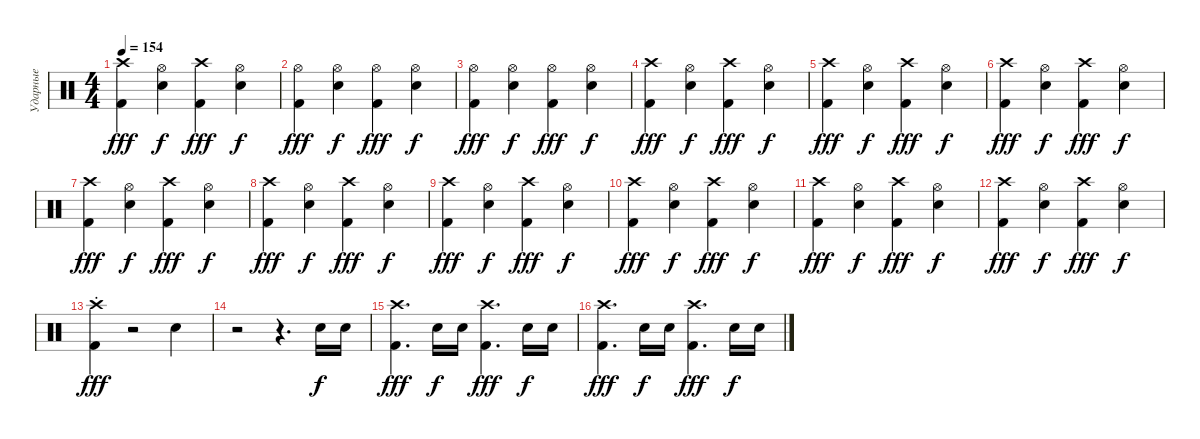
\track ("Ударные" "Ударные") {instrument percussion}
\staff
\articulation defaults
\ts (4 4)
\tempo 154
\clef neutral
\ks c
("Kick (hit) 2" "Crash high (hit)").4{dy fff} ("Snare (hit) 2" "Hi-Hat (open)").4{dy f} ("Kick (hit) 2" "Crash high (hit)").4{dy fff} ("Snare (hit) 2" "Hi-Hat (open)").4{dy f} |
("Kick (hit) 2" "Hi-Hat (open)").4{dy fff} ("Snare (hit) 2" "Hi-Hat (open)").4{dy f} ("Kick (hit) 2" "Hi-Hat (open)").4{dy fff} ("Snare (hit) 2" "Hi-Hat (open)").4{dy f} |
("Kick (hit) 2" "Hi-Hat (open)").4{dy fff} ("Snare (hit) 2" "Hi-Hat (open)").4{dy f} ("Kick (hit) 2" "Hi-Hat (open)").4{dy fff} ("Snare (hit) 2" "Hi-Hat (open)").4{dy f} |
("Kick (hit) 2" "Crash high (hit)").4{dy fff} ("Snare (hit) 2" "Hi-Hat (open)").4{dy f} ("Kick (hit) 2" "Crash high (hit)").4{dy fff} ("Snare (hit) 2" "Hi-Hat (open)").4{dy f} |
("Kick (hit) 2" "Crash high (hit)").4{dy fff} ("Snare (hit) 2" "Hi-Hat (open)").4{dy f} ("Kick (hit) 2" "Crash high (hit)").4{dy fff} ("Snare (hit) 2" "Hi-Hat (open)").4{dy f} |
("Kick (hit) 2" "Crash high (hit)").4{dy fff} ("Snare (hit) 2" "Hi-Hat (open)").4{dy f} ("Kick (hit) 2" "Crash high (hit)").4{dy fff} ("Snare (hit) 2" "Hi-Hat (open)").4{dy f} |
("Kick (hit) 2" "Crash high (hit)").4{dy fff} ("Snare (hit) 2" "Hi-Hat (open)").4{dy f} ("Kick (hit) 2" "Crash high (hit)").4{dy fff} ("Snare (hit) 2" "Hi-Hat (open)").4{dy f} |
("Kick (hit) 2" "Crash high (hit)").4{dy fff} ("Snare (hit) 2" "Hi-Hat (open)").4{dy f} ("Kick (hit) 2" "Crash high (hit)").4{dy fff} ("Snare (hit) 2" "Hi-Hat (open)").4{dy f} |
("Kick (hit) 2" "Crash high (hit)").4{dy fff} ("Snare (hit) 2" "Hi-Hat (open)").4{dy f} ("Kick (hit) 2" "Crash high (hit)").4{dy fff} ("Snare (hit) 2" "Hi-Hat (open)").4{dy f} |
("Kick (hit) 2" "Crash high (hit)").4{dy fff} ("Snare (hit) 2" "Hi-Hat (open)").4{dy f} ("Kick (hit) 2" "Crash high (hit)").4{dy fff} ("Snare (hit) 2" "Hi-Hat (open)").4{dy f} |
("Kick (hit) 2" "Crash high (hit)").4{dy fff} ("Snare (hit) 2" "Hi-Hat (open)").4{dy f} ("Kick (hit) 2" "Crash high (hit)").4{dy fff} ("Snare (hit) 2" "Hi-Hat (open)").4{dy f} |
("Kick (hit) 2" "Crash high (hit)").4{dy fff} ("Snare (hit) 2" "Hi-Hat (open)").4{dy f} ("Kick (hit) 2" "Crash high (hit)").4{dy fff} ("Snare (hit) 2" "Hi-Hat (open)").4{dy f} |
("Kick (hit) 2"{st} "Crash high (hit)"{st}).4{dy fff} r.2 "Snare (hit) 2".4 |
r.2 r.4{d} "Snare (hit) 2".16{dy f} "Snare (hit) 2".16 |
("Kick (hit) 2" "Crash high (hit)").4{d dy fff} "Snare (hit) 2".16{dy f} "Snare (hit) 2".16 ("Kick (hit) 2" "Crash high (hit)").4{d dy fff} "Snare (hit) 2".16{dy f} "Snare (hit) 2".16 |
("Kick (hit) 2" "Crash high (hit)").4{d dy fff} "Snare (hit) 2".16{dy f} "Snare (hit) 2".16 ("Kick (hit) 2" "Crash high (hit)").4{d dy fff} "Snare (hit) 2".16{dy f} "Snare (hit) 2".16
